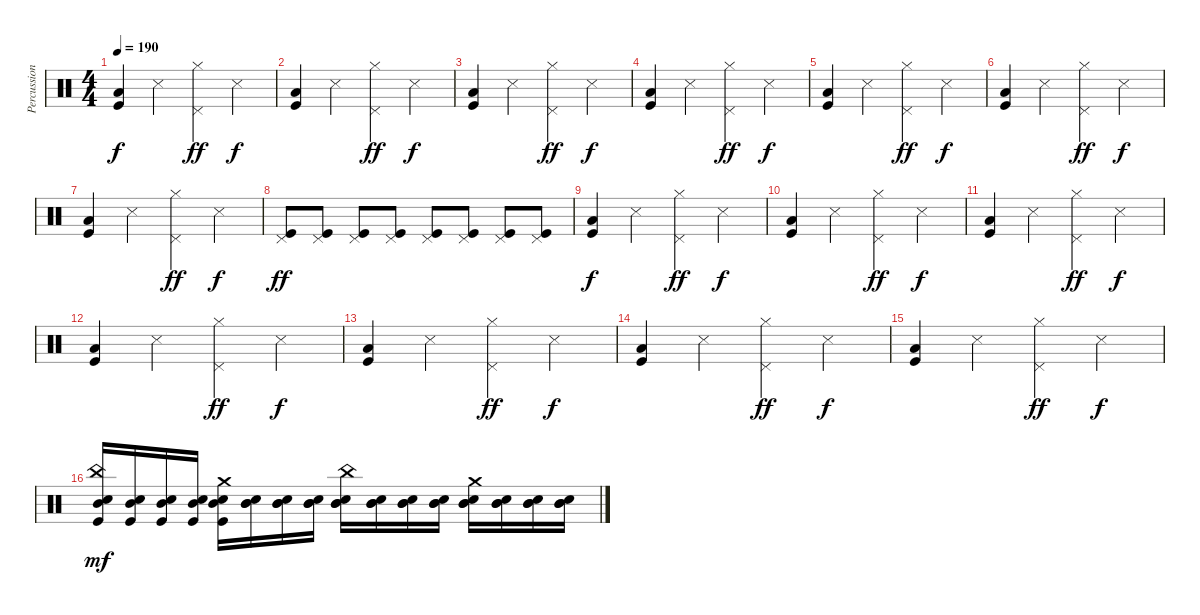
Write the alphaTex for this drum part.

\track ("Percussion" "Percussion") {instrument percussion}
\staff {score}
\articulation defaults
\ts (4 4)
\tempo 190
\clef neutral
\ks c
("Low Floor Tom (hit)" "Kick (hit)").4{dy f} "Snare (side stick) 3".4 ("Hi-Hat (closed)" "Pedal Hi-Hat (hit)").4{dy ff} "Snare (side stick) 3".4{dy f} |
("Low Floor Tom (hit)" "Kick (hit)").4 "Snare (side stick) 3".4 ("Hi-Hat (closed)" "Pedal Hi-Hat (hit)").4{dy ff} "Snare (side stick) 3".4{dy f} |
("Low Floor Tom (hit)" "Kick (hit)").4 "Snare (side stick) 3".4 ("Hi-Hat (closed)" "Pedal Hi-Hat (hit)").4{dy ff} "Snare (side stick) 3".4{dy f} |
("Low Floor Tom (hit)" "Kick (hit)").4 "Snare (side stick) 3".4 ("Hi-Hat (closed)" "Pedal Hi-Hat (hit)").4{dy ff} "Snare (side stick) 3".4{dy f} |
("Low Floor Tom (hit)" "Kick (hit)").4 "Snare (side stick) 3".4 ("Hi-Hat (closed)" "Pedal Hi-Hat (hit)").4{dy ff} "Snare (side stick) 3".4{dy f} |
("Low Floor Tom (hit)" "Kick (hit)").4 "Snare (side stick) 3".4 ("Hi-Hat (closed)" "Pedal Hi-Hat (hit)").4{dy ff} "Snare (side stick) 3".4{dy f} |
("Low Floor Tom (hit)" "Kick (hit)").4 "Snare (side stick) 3".4 ("Hi-Hat (closed)" "Pedal Hi-Hat (hit)").4{dy ff} "Snare (side stick) 3".4{dy f} |
("Pedal Hi-Hat (hit)" "Kick (hit)").8{dy ff} ("Pedal Hi-Hat (hit)" "Kick (hit)").8 ("Pedal Hi-Hat (hit)" "Kick (hit)").8 ("Pedal Hi-Hat (hit)" "Kick (hit)").8 ("Pedal Hi-Hat (hit)" "Kick (hit)").8 ("Pedal Hi-Hat (hit)" "Kick (hit)").8 ("Pedal Hi-Hat (hit)" "Kick (hit)").8 ("Pedal Hi-Hat (hit)" "Kick (hit)").8 |
("Low Floor Tom (hit)" "Kick (hit)").4{dy f} "Snare (side stick) 3".4 ("Hi-Hat (closed)" "Pedal Hi-Hat (hit)").4{dy ff} "Snare (side stick) 3".4{dy f} |
("Low Floor Tom (hit)" "Kick (hit)").4 "Snare (side stick) 3".4 ("Hi-Hat (closed)" "Pedal Hi-Hat (hit)").4{dy ff} "Snare (side stick) 3".4{dy f} |
("Low Floor Tom (hit)" "Kick (hit)").4 "Snare (side stick) 3".4 ("Hi-Hat (closed)" "Pedal Hi-Hat (hit)").4{dy ff} "Snare (side stick) 3".4{dy f} |
("Low Floor Tom (hit)" "Kick (hit)").4 "Snare (side stick) 3".4 ("Hi-Hat (closed)" "Pedal Hi-Hat (hit)").4{dy ff} "Snare (side stick) 3".4{dy f} |
("Low Floor Tom (hit)" "Kick (hit)").4 "Snare (side stick) 3".4 ("Hi-Hat (closed)" "Pedal Hi-Hat (hit)").4{dy ff} "Snare (side stick) 3".4{dy f} |
("Low Floor Tom (hit)" "Kick (hit)").4 "Snare (side stick) 3".4 ("Hi-Hat (closed)" "Pedal Hi-Hat (hit)").4{dy ff} "Snare (side stick) 3".4{dy f} |
("Low Floor Tom (hit)" "Kick (hit)").4 "Snare (side stick) 3".4 ("Hi-Hat (closed)" "Pedal Hi-Hat (hit)").4{dy ff} "Snare (side stick) 3".4{dy f} |
("China (hit)" "Snare (hit) 2" "Mid Tom (hit)" "Kick (hit)").16{dy mf} ("Snare (hit) 2" "Mid Tom (hit)" "Kick (hit)").16 ("Snare (hit) 2" "Mid Tom (hit)" "Kick (hit)").16 ("Snare (hit) 2" "Mid Tom (hit)" "Kick (hit)").16 ("Crash medium (hit)" "Snare (hit) 2" "Mid Tom (hit)" "Kick (hit)").16 ("Snare (hit) 2" "Mid Tom (hit)" "Mid Tom (hit)").16 ("Snare (hit) 2" "Mid Tom (hit)" "Mid Tom (hit)").16 ("Snare (hit) 2" "Mid Tom (hit)" "Mid Tom (hit)").16 ("China (hit)" "Snare (hit) 2" "Mid Tom (hit)" "Mid Tom (hit)").16 ("Snare (hit) 2" "Mid Tom (hit)" "Mid Tom (hit)").16 ("Snare (hit) 2" "Mid Tom (hit)" "Mid Tom (hit)").16 ("Snare (hit) 2" "Mid Tom (hit)" "Mid Tom (hit)").16 ("Crash medium (hit)" "Snare (hit) 2" "Mid Tom (hit)" "Mid Tom (hit)").16 ("Snare (hit) 2" "Mid Tom (hit)" "Mid Tom (hit)").16 ("Snare (hit) 2" "Mid Tom (hit)" "Mid Tom (hit)").16 ("Snare (hit) 2" "Mid Tom (hit)" "Mid Tom (hit)").16
